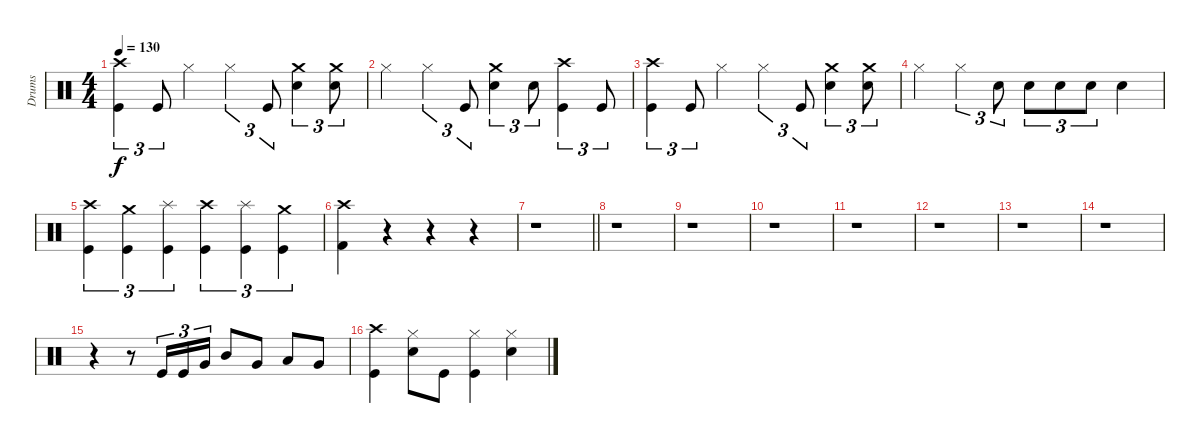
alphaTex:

\track ("Drums" "Drums") {instrument percussion}
\staff {score}
\articulation defaults
\ts (4 4)
\tempo 130
\clef neutral
\ks c
("Crash high (hit)" "Kick (hit)").4{tu (3 2) dy f} "Kick (hit)".8{tu (3 2)} "Hi-Hat (closed)".4 "Hi-Hat (closed)".4{tu (3 2)} "Kick (hit)".8{tu (3 2)} ("Crash medium (hit)" "Snare (hit) 2").4{tu (3 2)} ("Crash medium (hit)" "Snare (hit) 2").8{tu (3 2)} |
"Hi-Hat (closed)".4 "Hi-Hat (closed)".4{tu (3 2)} "Kick (hit)".8{tu (3 2)} ("Crash medium (hit)" "Snare (hit) 2").4{tu (3 2)} "Snare (hit) 2".8{tu (3 2)} ("Crash high (hit)" "Kick (hit)").4{tu (3 2)} "Kick (hit)".8{tu (3 2)} |
("Crash high (hit)" "Kick (hit)").4{tu (3 2)} "Kick (hit)".8{tu (3 2)} "Hi-Hat (closed)".4 "Hi-Hat (closed)".4{tu (3 2)} "Kick (hit)".8{tu (3 2)} ("Crash medium (hit)" "Snare (hit) 2").4{tu (3 2)} ("Crash medium (hit)" "Snare (hit) 2").8{tu (3 2)} |
"Hi-Hat (closed)".4 "Hi-Hat (closed)".4{tu (3 2)} "Snare (hit) 2".8{tu (3 2)} "Snare (hit) 2".8{tu (3 2)} "Snare (hit) 2".8{tu (3 2)} "Snare (hit) 2".8{tu (3 2)} "Snare (hit) 2".4 |
("Crash high (hit)" "Kick (hit)").4{tu (3 2)} ("Crash medium (hit)" "Kick (hit)").4{tu (3 2)} ("Splash (hit)" "Kick (hit)").4{tu (3 2)} ("Crash high (hit)" "Kick (hit)").4{tu (3 2)} ("Splash (hit)" "Kick (hit)").4{tu (3 2)} ("Crash medium (hit)" "Kick (hit)").4{tu (3 2)} |
("Crash high (hit)" "Kick (hit) 2").4 r.4 r.4 r.4 |
\barLineRight lightlight
r.1 |
r.1 |
r.1 |
r.1 |
r.1 |
r.1 |
r.1 |
r.1 |
r.4 r.8 "Kick (hit)".16{tu (3 2)} "Kick (hit)".16{tu (3 2)} "Very Low Tom (hit)".16{tu (3 2)} "Mid Tom (hit)".8 "Very Low Tom (hit)".8 "Low Tom (hit)".8 "Very Low Tom (hit)".8 |
("Crash high (hit)" "Kick (hit)").4 ("Hi-Hat (closed)" "Snare (hit) 2").8 "Kick (hit)".8 ("Hi-Hat (closed)" "Kick (hit)").4 ("Hi-Hat (closed)" "Snare (hit) 2").4
